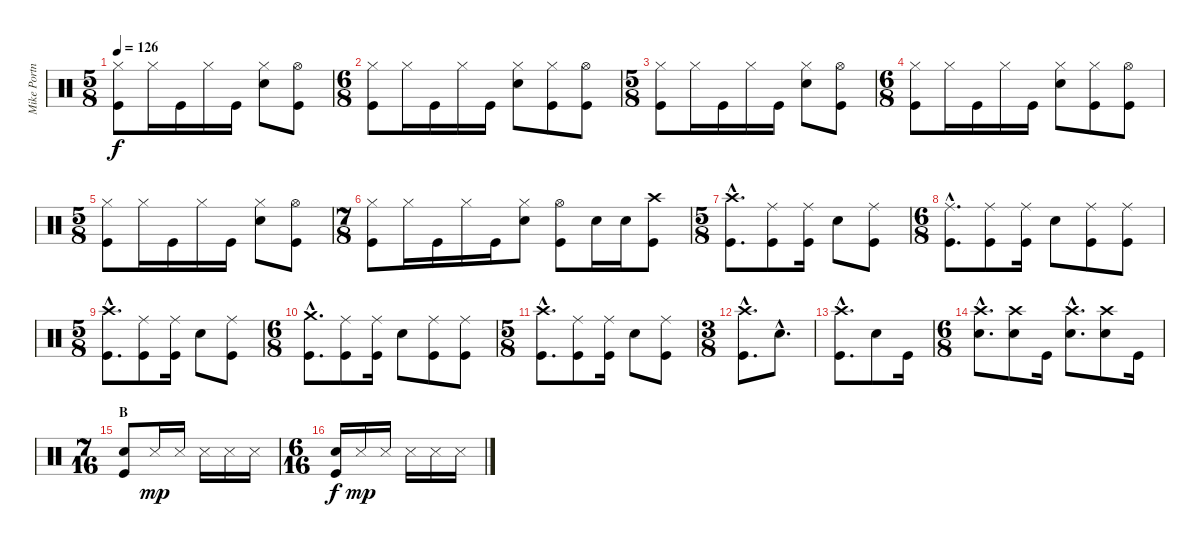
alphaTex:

\track ("Mike Portnoy" "Mike Portn") {instrument percussion}
\staff {score}
\articulation defaults
\ts (5 8)
\tempo 126
\clef neutral
\ks c
("Hi-Hat (closed)" "Kick (hit)").8{dy f} "Hi-Hat (closed)".16 "Kick (hit)".16 "Hi-Hat (closed)".16 "Kick (hit)".16 ("Hi-Hat (closed)" "Electric Snare (hit)").8 ("Hi-Hat (open)" "Kick (hit)").8 |
\ts (6 8)
("Hi-Hat (closed)" "Kick (hit)").8 "Hi-Hat (closed)".16 "Kick (hit)".16 "Hi-Hat (closed)".16 "Kick (hit)".16 ("Hi-Hat (closed)" "Electric Snare (hit)").8 ("Hi-Hat (closed)" "Kick (hit)").8 ("Hi-Hat (open)" "Kick (hit)").8 |
\ts (5 8)
("Hi-Hat (closed)" "Kick (hit)").8 "Hi-Hat (closed)".16 "Kick (hit)".16 "Hi-Hat (closed)".16 "Kick (hit)".16 ("Hi-Hat (closed)" "Electric Snare (hit)").8 ("Hi-Hat (open)" "Kick (hit)").8 |
\ts (6 8)
("Hi-Hat (closed)" "Kick (hit)").8 "Hi-Hat (closed)".16 "Kick (hit)".16 "Hi-Hat (closed)".16 "Kick (hit)".16 ("Hi-Hat (closed)" "Electric Snare (hit)").8 ("Hi-Hat (closed)" "Kick (hit)").8 ("Hi-Hat (open)" "Kick (hit)").8 |
\ts (5 8)
("Hi-Hat (closed)" "Kick (hit)").8 "Hi-Hat (closed)".16 "Kick (hit)".16 "Hi-Hat (closed)".16 "Kick (hit)".16 ("Hi-Hat (closed)" "Electric Snare (hit)").8 ("Hi-Hat (open)" "Kick (hit)").8 |
\ts (7 8)
("Hi-Hat (closed)" "Kick (hit)").8 "Hi-Hat (closed)".16 "Kick (hit)".16 "Hi-Hat (closed)".16 "Kick (hit)".16 ("Hi-Hat (closed)" "Electric Snare (hit)").8 ("Hi-Hat (open)" "Kick (hit)").8 "Electric Snare (hit)".16 "Electric Snare (hit)".16 ("Crash high (hit)" "Kick (hit)").8 |
\ts (5 8)
("Crash high (hit)"{hac} "Kick (hit)"{hac}).8{d} ("Ride (middle)" "Kick (hit)").8 ("Ride (middle)" "Kick (hit)").16 "Electric Snare (hit)".8 ("Ride (middle)" "Kick (hit)").8 |
\ts (6 8)
("Ride (middle)"{hac} "Kick (hit)"{hac}).8{d} ("Ride (middle)" "Kick (hit)").8 ("Ride (middle)" "Kick (hit)").16 "Electric Snare (hit)".8 ("Ride (middle)" "Kick (hit)").8 ("Ride (middle)" "Kick (hit)").8 |
\ts (5 8)
("Crash high (hit)"{hac} "Kick (hit)"{hac}).8{d} ("Ride (middle)" "Kick (hit)").8 ("Ride (middle)" "Kick (hit)").16 "Electric Snare (hit)".8 ("Ride (middle)" "Kick (hit)").8 |
\ts (6 8)
("Crash medium (hit)"{hac} "Kick (hit)"{hac}).8{d} ("Ride (middle)" "Kick (hit)").8 ("Ride (middle)" "Kick (hit)").16 "Electric Snare (hit)".8 ("Ride (middle)" "Kick (hit)").8 ("Ride (middle)" "Kick (hit)").8 |
\ts (5 8)
("Crash high (hit)"{hac} "Kick (hit)"{hac}).8{d} ("Ride (middle)" "Kick (hit)").8 ("Ride (middle)" "Kick (hit)").16 "Electric Snare (hit)".8 ("Ride (middle)" "Kick (hit)").8 |
\ts (3 8)
("Crash high (hit)"{hac} "Kick (hit)"{hac}).8{d} "Electric Snare (hit)"{hac}.8{d} |
("Crash high (hit)"{hac} "Kick (hit)"{hac}).8{d} "Electric Snare (hit)".8 "Kick (hit)".16 |
\ts (6 8)
("Crash high (hit)"{hac} "Electric Snare (hit)"{hac}).8{d} ("Crash high (hit)" "Electric Snare (hit)").8 "Kick (hit)".16 ("Crash high (hit)"{hac} "Electric Snare (hit)"{hac}).8{d} ("Crash high (hit)" "Electric Snare (hit)").8 "Kick (hit)".16 |
\ts (7 16)
\section ("" "B")
("Electric Snare (hit)" "Kick (hit)").8 "Snare (side stick) 3".16{dy mp} "Snare (side stick) 3".16 "Snare (side stick) 3".16 "Snare (side stick) 3".16 "Snare (side stick) 3".16 |
\ts (6 16)
("Electric Snare (hit)" "Kick (hit)").16{dy f} "Snare (side stick) 3".16{dy mp} "Snare (side stick) 3".16 "Snare (side stick) 3".16 "Snare (side stick) 3".16 "Snare (side stick) 3".16
